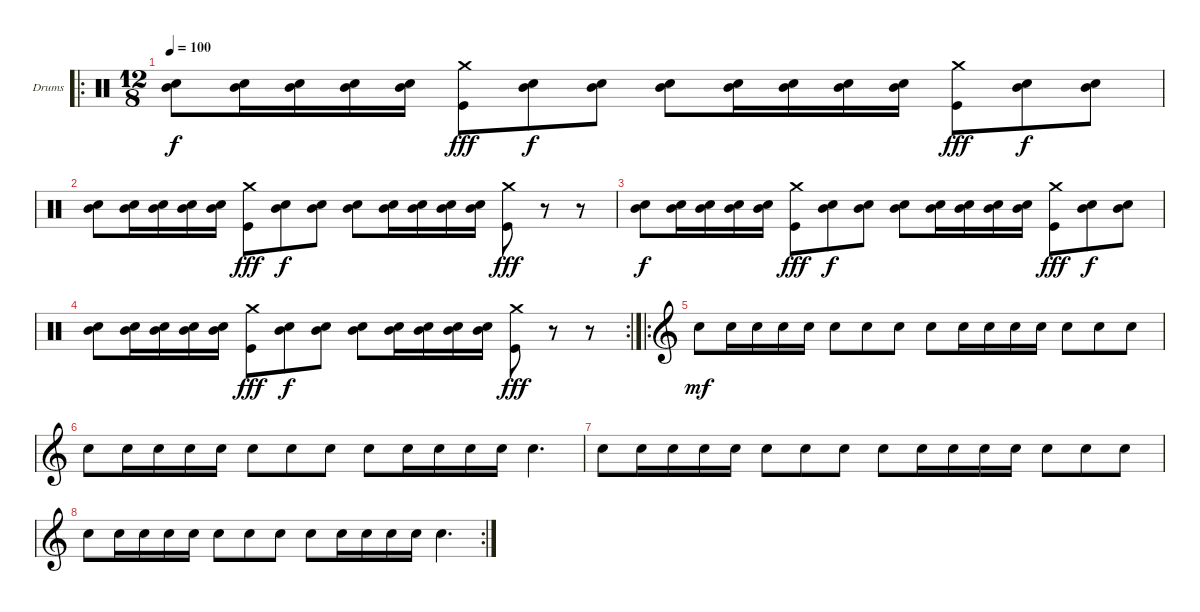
\bracketExtendMode groupsimilarinstruments
\firstSystemTrackNameOrientation horizontal
\otherSystemsTrackNameOrientation horizontal
\track ("Сеня(Drumkit)" "Drums") {instrument percussion}
\staff {score}
\articulation defaults
\ro
\ts (12 8)
\tempo 100
\clef neutral
\ks c
("Mid Tom (hit)" "Snare (hit) 2").8{dy f} ("Mid Tom (hit)" "Snare (hit) 2").16 ("Mid Tom (hit)" "Snare (hit) 2").16 ("Mid Tom (hit)" "Snare (hit) 2").16 ("Mid Tom (hit)" "Snare (hit) 2").16 ("Crash medium (hit)" "Kick (hit)").8{dy fff} ("Mid Tom (hit)" "Snare (hit) 2").8{dy f} ("Mid Tom (hit)" "Snare (hit) 2").8 ("Mid Tom (hit)" "Snare (hit) 2").8 ("Mid Tom (hit)" "Snare (hit) 2").16 ("Mid Tom (hit)" "Snare (hit) 2").16 ("Mid Tom (hit)" "Snare (hit) 2").16 ("Mid Tom (hit)" "Snare (hit) 2").16 ("Crash medium (hit)" "Kick (hit)").8{dy fff} ("Mid Tom (hit)" "Snare (hit) 2").8{dy f} ("Mid Tom (hit)" "Snare (hit) 2").8 |
("Mid Tom (hit)" "Snare (hit) 2").8 ("Mid Tom (hit)" "Snare (hit) 2").16 ("Mid Tom (hit)" "Snare (hit) 2").16 ("Mid Tom (hit)" "Snare (hit) 2").16 ("Mid Tom (hit)" "Snare (hit) 2").16 ("Crash medium (hit)" "Kick (hit)").8{dy fff} ("Mid Tom (hit)" "Snare (hit) 2").8{dy f} ("Mid Tom (hit)" "Snare (hit) 2").8 ("Mid Tom (hit)" "Snare (hit) 2").8 ("Mid Tom (hit)" "Snare (hit) 2").16 ("Mid Tom (hit)" "Snare (hit) 2").16 ("Mid Tom (hit)" "Snare (hit) 2").16 ("Mid Tom (hit)" "Snare (hit) 2").16 ("Crash medium (hit)" "Kick (hit)").8{dy fff} r.8 r.8 |
("Mid Tom (hit)" "Snare (hit) 2").8{dy f} ("Mid Tom (hit)" "Snare (hit) 2").16 ("Mid Tom (hit)" "Snare (hit) 2").16 ("Mid Tom (hit)" "Snare (hit) 2").16 ("Mid Tom (hit)" "Snare (hit) 2").16 ("Crash medium (hit)" "Kick (hit)").8{dy fff} ("Mid Tom (hit)" "Snare (hit) 2").8{dy f} ("Mid Tom (hit)" "Snare (hit) 2").8 ("Mid Tom (hit)" "Snare (hit) 2").8 ("Mid Tom (hit)" "Snare (hit) 2").16 ("Mid Tom (hit)" "Snare (hit) 2").16 ("Mid Tom (hit)" "Snare (hit) 2").16 ("Mid Tom (hit)" "Snare (hit) 2").16 ("Crash medium (hit)" "Kick (hit)").8{dy fff} ("Mid Tom (hit)" "Snare (hit) 2").8{dy f} ("Mid Tom (hit)" "Snare (hit) 2").8 |
\rc 2
("Mid Tom (hit)" "Snare (hit) 2").8 ("Mid Tom (hit)" "Snare (hit) 2").16 ("Mid Tom (hit)" "Snare (hit) 2").16 ("Mid Tom (hit)" "Snare (hit) 2").16 ("Mid Tom (hit)" "Snare (hit) 2").16 ("Crash medium (hit)" "Kick (hit)").8{dy fff} ("Mid Tom (hit)" "Snare (hit) 2").8{dy f} ("Mid Tom (hit)" "Snare (hit) 2").8 ("Mid Tom (hit)" "Snare (hit) 2").8 ("Mid Tom (hit)" "Snare (hit) 2").16 ("Mid Tom (hit)" "Snare (hit) 2").16 ("Mid Tom (hit)" "Snare (hit) 2").16 ("Mid Tom (hit)" "Snare (hit) 2").16 ("Crash medium (hit)" "Kick (hit)").8{dy fff} r.8 r.8 |
\ro
\clef g2 "Snare (hit) 2".8{dy mf} "Snare (hit) 2".16 "Snare (hit) 2".16 "Snare (hit) 2".16 "Snare (hit) 2".16 "Snare (hit) 2".8 "Snare (hit) 2".8 "Snare (hit) 2".8 "Snare (hit) 2".8 "Snare (hit) 2".16 "Snare (hit) 2".16 "Snare (hit) 2".16 "Snare (hit) 2".16 "Snare (hit) 2".8 "Snare (hit) 2".8 "Snare (hit) 2".8
|
"Snare (hit) 2".8 "Snare (hit) 2".16 "Snare (hit) 2".16 "Snare (hit) 2".16 "Snare (hit) 2".16 "Snare (hit) 2".8 "Snare (hit) 2".8 "Snare (hit) 2".8 "Snare (hit) 2".8 "Snare (hit) 2".16 "Snare (hit) 2".16 "Snare (hit) 2".16 "Snare (hit) 2".16 "Snare (hit) 2".4{d} |
"Snare (hit) 2".8 "Snare (hit) 2".16 "Snare (hit) 2".16 "Snare (hit) 2".16 "Snare (hit) 2".16 "Snare (hit) 2".8 "Snare (hit) 2".8 "Snare (hit) 2".8 "Snare (hit) 2".8 "Snare (hit) 2".16 "Snare (hit) 2".16 "Snare (hit) 2".16 "Snare (hit) 2".16 "Snare (hit) 2".8 "Snare (hit) 2".8 "Snare (hit) 2".8 |
\rc 2 "Snare (hit) 2".8 "Snare (hit) 2".16 "Snare (hit) 2".16 "Snare (hit) 2".16 "Snare (hit) 2".16 "Snare (hit) 2".8 "Snare (hit) 2".8 "Snare (hit) 2".8 "Snare (hit) 2".8 "Snare (hit) 2".16 "Snare (hit) 2".16 "Snare (hit) 2".16 "Snare (hit) 2".16 "Snare (hit) 2".4{d}
